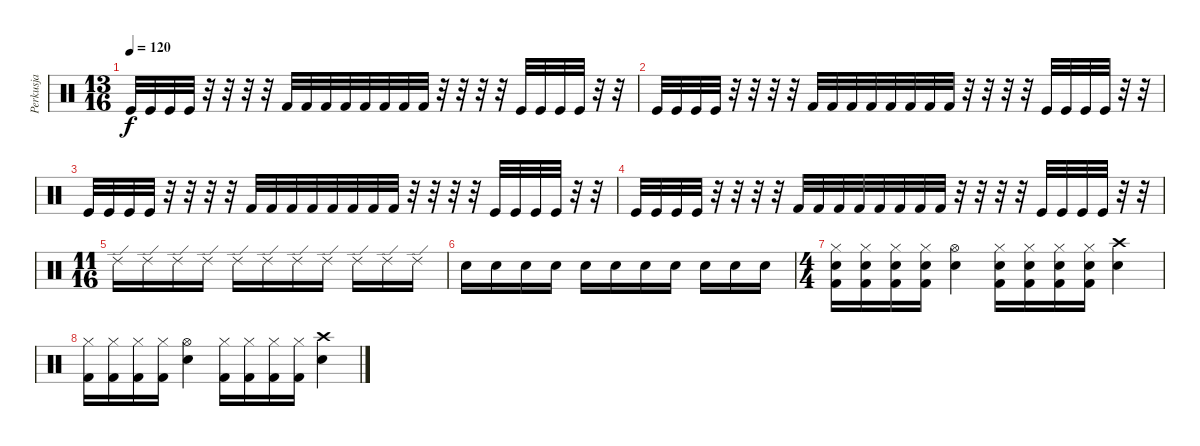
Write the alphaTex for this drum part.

\track ("Perkusja" "Perkusja") {instrument percussion}
\staff {score}
\articulation defaults
\ts (13 16)
\tempo 120
\clef neutral
\ks c "Kick (hit)".32{dy f} "Kick (hit)".32 "Kick (hit)".32 "Kick (hit)".32
r.32 r.32 r.32 r.32 "Kick (hit) 2".32 "Kick (hit) 2".32 "Kick (hit) 2".32 "Kick (hit) 2".32 "Kick (hit) 2".32 "Kick (hit) 2".32 "Kick (hit) 2".32 "Kick (hit) 2".32 r.32 r.32 r.32 r.32 "Kick (hit)".32 "Kick (hit)".32 "Kick (hit)".32 "Kick (hit)".32 r.32 r.32 |
"Kick (hit)".32 "Kick (hit)".32 "Kick (hit)".32 "Kick (hit)".32 r.32 r.32 r.32 r.32 "Kick (hit) 2".32 "Kick (hit) 2".32 "Kick (hit) 2".32 "Kick (hit) 2".32 "Kick (hit) 2".32 "Kick (hit) 2".32 "Kick (hit) 2".32 "Kick (hit) 2".32 r.32 r.32 r.32 r.32 "Kick (hit)".32 "Kick (hit)".32 "Kick (hit)".32 "Kick (hit)".32 r.32 r.32 |
"Kick (hit)".32 "Kick (hit)".32 "Kick (hit)".32 "Kick (hit)".32 r.32 r.32 r.32 r.32 "Kick (hit) 2".32 "Kick (hit) 2".32 "Kick (hit) 2".32 "Kick (hit) 2".32 "Kick (hit) 2".32 "Kick (hit) 2".32 "Kick (hit) 2".32 "Kick (hit) 2".32 r.32 r.32 r.32 r.32 "Kick (hit)".32 "Kick (hit)".32 "Kick (hit)".32 "Kick (hit)".32 r.32 r.32 |
"Kick (hit)".32 "Kick (hit)".32 "Kick (hit)".32 "Kick (hit)".32 r.32 r.32 r.32 r.32 "Kick (hit) 2".32 "Kick (hit) 2".32 "Kick (hit) 2".32 "Kick (hit) 2".32 "Kick (hit) 2".32 "Kick (hit) 2".32 "Kick (hit) 2".32 "Kick (hit) 2".32 r.32 r.32 r.32 r.32 "Kick (hit)".32 "Kick (hit)".32 "Kick (hit)".32 "Kick (hit)".32 r.32 r.32 |
\ts (11 16)
"Ride (edge) 2".16 "Ride (edge) 2".16 "Ride (edge) 2".16 "Ride (edge) 2".16 "Ride (edge) 2".16 "Ride (edge) 2".16 "Ride (edge) 2".16 "Ride (edge) 2".16 "Ride (edge) 2".16 "Ride (edge) 2".16 "Ride (edge) 2".16 |
"Electric Snare (hit)".16 "Electric Snare (hit)".16 "Electric Snare (hit)".16 "Electric Snare (hit)".16 "Electric Snare (hit)".16 "Electric Snare (hit)".16 "Electric Snare (hit)".16 "Electric Snare (hit)".16 "Electric Snare (hit)".16 "Electric Snare (hit)".16 "Electric Snare (hit)".16 |
\ts (4 4)
("Hi-Hat (closed)" "Electric Snare (hit)" "Kick (hit) 2").16 ("Hi-Hat (closed)" "Electric Snare (hit)" "Kick (hit) 2").16 ("Hi-Hat (closed)" "Electric Snare (hit)" "Kick (hit) 2").16 ("Hi-Hat (closed)" "Electric Snare (hit)" "Kick (hit) 2").16 ("Hi-Hat (open)" "Electric Snare (hit)").4 ("Hi-Hat (closed)" "Electric Snare (hit)" "Kick (hit) 2").16 ("Hi-Hat (closed)" "Electric Snare (hit)" "Kick (hit) 2").16 ("Hi-Hat (closed)" "Electric Snare (hit)" "Kick (hit) 2").16 ("Hi-Hat (closed)" "Electric Snare (hit)" "Kick (hit) 2").16 ("Crash high (hit)" "Electric Snare (hit)").4 |
("Hi-Hat (closed)" "Kick (hit) 2").16 ("Hi-Hat (closed)" "Kick (hit) 2").16 ("Hi-Hat (closed)" "Kick (hit) 2").16 ("Hi-Hat (closed)" "Kick (hit) 2").16 ("Hi-Hat (open)" "Electric Snare (hit)").4 ("Hi-Hat (closed)" "Kick (hit) 2").16 ("Hi-Hat (closed)" "Kick (hit) 2").16 ("Hi-Hat (closed)" "Kick (hit) 2").16 ("Hi-Hat (closed)" "Kick (hit) 2").16 ("Crash high (hit)" "Electric Snare (hit)").4
